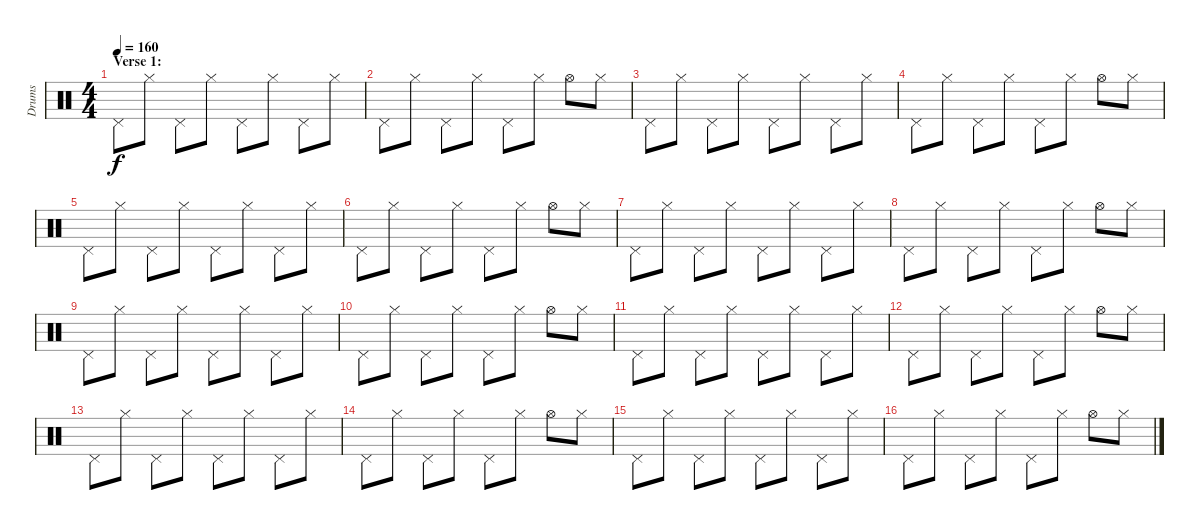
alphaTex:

\track ("Drums" "Drums") {instrument percussion}
\staff {score}
\articulation defaults
\ts (4 4)
\section ("" "Verse 1:")
\tempo 160
\clef neutral
\ks c "Pedal Hi-Hat (hit)".8{dy f} "Hi-Hat (closed)".8 "Pedal Hi-Hat (hit)".8 "Hi-Hat (closed)".8 "Pedal Hi-Hat (hit)".8 "Hi-Hat (closed)".8 "Pedal Hi-Hat (hit)".8 "Hi-Hat (closed)".8
|
"Pedal Hi-Hat (hit)".8 "Hi-Hat (closed)".8 "Pedal Hi-Hat (hit)".8 "Hi-Hat (closed)".8 "Pedal Hi-Hat (hit)".8 "Hi-Hat (closed)".8 "Hi-Hat (open)".8 "Hi-Hat (closed)".8 |
"Pedal Hi-Hat (hit)".8 "Hi-Hat (closed)".8 "Pedal Hi-Hat (hit)".8 "Hi-Hat (closed)".8 "Pedal Hi-Hat (hit)".8 "Hi-Hat (closed)".8 "Pedal Hi-Hat (hit)".8 "Hi-Hat (closed)".8 |
"Pedal Hi-Hat (hit)".8 "Hi-Hat (closed)".8 "Pedal Hi-Hat (hit)".8 "Hi-Hat (closed)".8 "Pedal Hi-Hat (hit)".8 "Hi-Hat (closed)".8 "Hi-Hat (open)".8 "Hi-Hat (closed)".8 |
"Pedal Hi-Hat (hit)".8 "Hi-Hat (closed)".8 "Pedal Hi-Hat (hit)".8 "Hi-Hat (closed)".8 "Pedal Hi-Hat (hit)".8 "Hi-Hat (closed)".8 "Pedal Hi-Hat (hit)".8 "Hi-Hat (closed)".8 |
"Pedal Hi-Hat (hit)".8 "Hi-Hat (closed)".8 "Pedal Hi-Hat (hit)".8 "Hi-Hat (closed)".8 "Pedal Hi-Hat (hit)".8 "Hi-Hat (closed)".8 "Hi-Hat (open)".8 "Hi-Hat (closed)".8 |
"Pedal Hi-Hat (hit)".8 "Hi-Hat (closed)".8 "Pedal Hi-Hat (hit)".8 "Hi-Hat (closed)".8 "Pedal Hi-Hat (hit)".8 "Hi-Hat (closed)".8 "Pedal Hi-Hat (hit)".8 "Hi-Hat (closed)".8 |
"Pedal Hi-Hat (hit)".8 "Hi-Hat (closed)".8 "Pedal Hi-Hat (hit)".8 "Hi-Hat (closed)".8 "Pedal Hi-Hat (hit)".8 "Hi-Hat (closed)".8 "Hi-Hat (open)".8 "Hi-Hat (closed)".8 |
"Pedal Hi-Hat (hit)".8 "Hi-Hat (closed)".8 "Pedal Hi-Hat (hit)".8 "Hi-Hat (closed)".8 "Pedal Hi-Hat (hit)".8 "Hi-Hat (closed)".8 "Pedal Hi-Hat (hit)".8 "Hi-Hat (closed)".8 |
"Pedal Hi-Hat (hit)".8 "Hi-Hat (closed)".8 "Pedal Hi-Hat (hit)".8 "Hi-Hat (closed)".8 "Pedal Hi-Hat (hit)".8 "Hi-Hat (closed)".8 "Hi-Hat (open)".8 "Hi-Hat (closed)".8 |
"Pedal Hi-Hat (hit)".8 "Hi-Hat (closed)".8 "Pedal Hi-Hat (hit)".8 "Hi-Hat (closed)".8 "Pedal Hi-Hat (hit)".8 "Hi-Hat (closed)".8 "Pedal Hi-Hat (hit)".8 "Hi-Hat (closed)".8 |
"Pedal Hi-Hat (hit)".8 "Hi-Hat (closed)".8 "Pedal Hi-Hat (hit)".8 "Hi-Hat (closed)".8 "Pedal Hi-Hat (hit)".8 "Hi-Hat (closed)".8 "Hi-Hat (open)".8 "Hi-Hat (closed)".8 |
"Pedal Hi-Hat (hit)".8 "Hi-Hat (closed)".8 "Pedal Hi-Hat (hit)".8 "Hi-Hat (closed)".8 "Pedal Hi-Hat (hit)".8 "Hi-Hat (closed)".8 "Pedal Hi-Hat (hit)".8 "Hi-Hat (closed)".8 |
"Pedal Hi-Hat (hit)".8 "Hi-Hat (closed)".8 "Pedal Hi-Hat (hit)".8 "Hi-Hat (closed)".8 "Pedal Hi-Hat (hit)".8 "Hi-Hat (closed)".8 "Hi-Hat (open)".8 "Hi-Hat (closed)".8 |
"Pedal Hi-Hat (hit)".8 "Hi-Hat (closed)".8 "Pedal Hi-Hat (hit)".8 "Hi-Hat (closed)".8 "Pedal Hi-Hat (hit)".8 "Hi-Hat (closed)".8 "Pedal Hi-Hat (hit)".8 "Hi-Hat (closed)".8 |
"Pedal Hi-Hat (hit)".8 "Hi-Hat (closed)".8 "Pedal Hi-Hat (hit)".8 "Hi-Hat (closed)".8 "Pedal Hi-Hat (hit)".8 "Hi-Hat (closed)".8 "Hi-Hat (open)".8 "Hi-Hat (closed)".8
